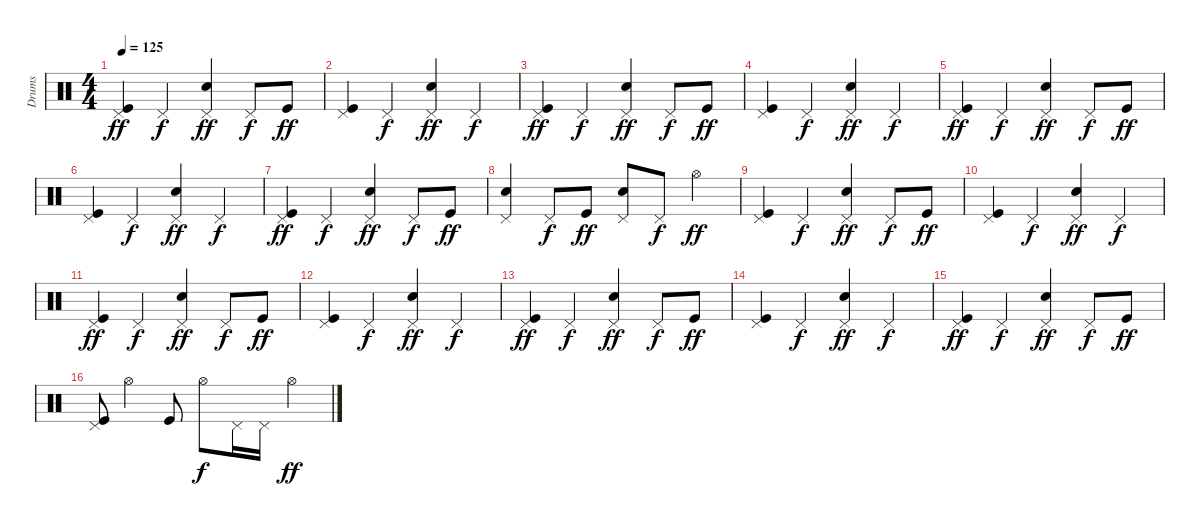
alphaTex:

\track ("Drums" "Drums") {instrument percussion}
\staff {score}
\articulation defaults
\ts (4 4)
\tempo 125
\clef neutral
\ks c
("Pedal Hi-Hat (hit)" "Kick (hit)").4{dy ff} "Pedal Hi-Hat (hit)".4{dy f} ("Pedal Hi-Hat (hit)" "Electric Snare (hit)").4{dy ff} "Pedal Hi-Hat (hit)".8{dy f} "Kick (hit)".8{dy ff} |
("Pedal Hi-Hat (hit)" "Kick (hit)").4 "Pedal Hi-Hat (hit)".4{dy f} ("Pedal Hi-Hat (hit)" "Electric Snare (hit)").4{dy ff} "Pedal Hi-Hat (hit)".4{dy f} |
("Pedal Hi-Hat (hit)" "Kick (hit)").4{dy ff} "Pedal Hi-Hat (hit)".4{dy f} ("Pedal Hi-Hat (hit)" "Electric Snare (hit)").4{dy ff} "Pedal Hi-Hat (hit)".8{dy f} "Kick (hit)".8{dy ff} |
("Pedal Hi-Hat (hit)" "Kick (hit)").4 "Pedal Hi-Hat (hit)".4{dy f} ("Pedal Hi-Hat (hit)" "Electric Snare (hit)").4{dy ff} "Pedal Hi-Hat (hit)".4{dy f} |
("Pedal Hi-Hat (hit)" "Kick (hit)").4{dy ff} "Pedal Hi-Hat (hit)".4{dy f} ("Pedal Hi-Hat (hit)" "Electric Snare (hit)").4{dy ff} "Pedal Hi-Hat (hit)".8{dy f} "Kick (hit)".8{dy ff} |
("Pedal Hi-Hat (hit)" "Kick (hit)").4 "Pedal Hi-Hat (hit)".4{dy f} ("Pedal Hi-Hat (hit)" "Electric Snare (hit)").4{dy ff} "Pedal Hi-Hat (hit)".4{dy f} |
("Pedal Hi-Hat (hit)" "Kick (hit)").4{dy ff} "Pedal Hi-Hat (hit)".4{dy f} ("Pedal Hi-Hat (hit)" "Electric Snare (hit)").4{dy ff} "Pedal Hi-Hat (hit)".8{dy f} "Kick (hit)".8{dy ff} |
("Pedal Hi-Hat (hit)" "Electric Snare (hit)").4 "Pedal Hi-Hat (hit)".8{dy f} "Kick (hit)".8{dy ff} ("Pedal Hi-Hat (hit)" "Electric Snare (hit)").8 "Pedal Hi-Hat (hit)".8{dy f} "Hi-Hat (open)".4{dy ff} |
("Pedal Hi-Hat (hit)" "Kick (hit)").4 "Pedal Hi-Hat (hit)".4{dy f} ("Pedal Hi-Hat (hit)" "Electric Snare (hit)").4{dy ff} "Pedal Hi-Hat (hit)".8{dy f} "Kick (hit)".8{dy ff} |
("Pedal Hi-Hat (hit)" "Kick (hit)").4 "Pedal Hi-Hat (hit)".4{dy f} ("Pedal Hi-Hat (hit)" "Electric Snare (hit)").4{dy ff} "Pedal Hi-Hat (hit)".4{dy f} |
("Pedal Hi-Hat (hit)" "Kick (hit)").4{dy ff} "Pedal Hi-Hat (hit)".4{dy f} ("Pedal Hi-Hat (hit)" "Electric Snare (hit)").4{dy ff} "Pedal Hi-Hat (hit)".8{dy f} "Kick (hit)".8{dy ff} |
("Pedal Hi-Hat (hit)" "Kick (hit)").4 "Pedal Hi-Hat (hit)".4{dy f} ("Pedal Hi-Hat (hit)" "Electric Snare (hit)").4{dy ff} "Pedal Hi-Hat (hit)".4{dy f} |
("Pedal Hi-Hat (hit)" "Kick (hit)").4{dy ff} "Pedal Hi-Hat (hit)".4{dy f} ("Pedal Hi-Hat (hit)" "Electric Snare (hit)").4{dy ff} "Pedal Hi-Hat (hit)".8{dy f} "Kick (hit)".8{dy ff} |
("Pedal Hi-Hat (hit)" "Kick (hit)").4 "Pedal Hi-Hat (hit)".4{dy f} ("Pedal Hi-Hat (hit)" "Electric Snare (hit)").4{dy ff} "Pedal Hi-Hat (hit)".4{dy f} |
("Pedal Hi-Hat (hit)" "Kick (hit)").4{dy ff} "Pedal Hi-Hat (hit)".4{dy f} ("Pedal Hi-Hat (hit)" "Electric Snare (hit)").4{dy ff} "Pedal Hi-Hat (hit)".8{dy f} "Kick (hit)".8{dy ff} |
("Pedal Hi-Hat (hit)" "Kick (hit)").8 "Hi-Hat (open)".4 "Kick (hit)".8 "Hi-Hat (open)".8{dy f} "Pedal Hi-Hat (hit)".16 "Pedal Hi-Hat (hit)".16 "Hi-Hat (open)".4{dy ff}
